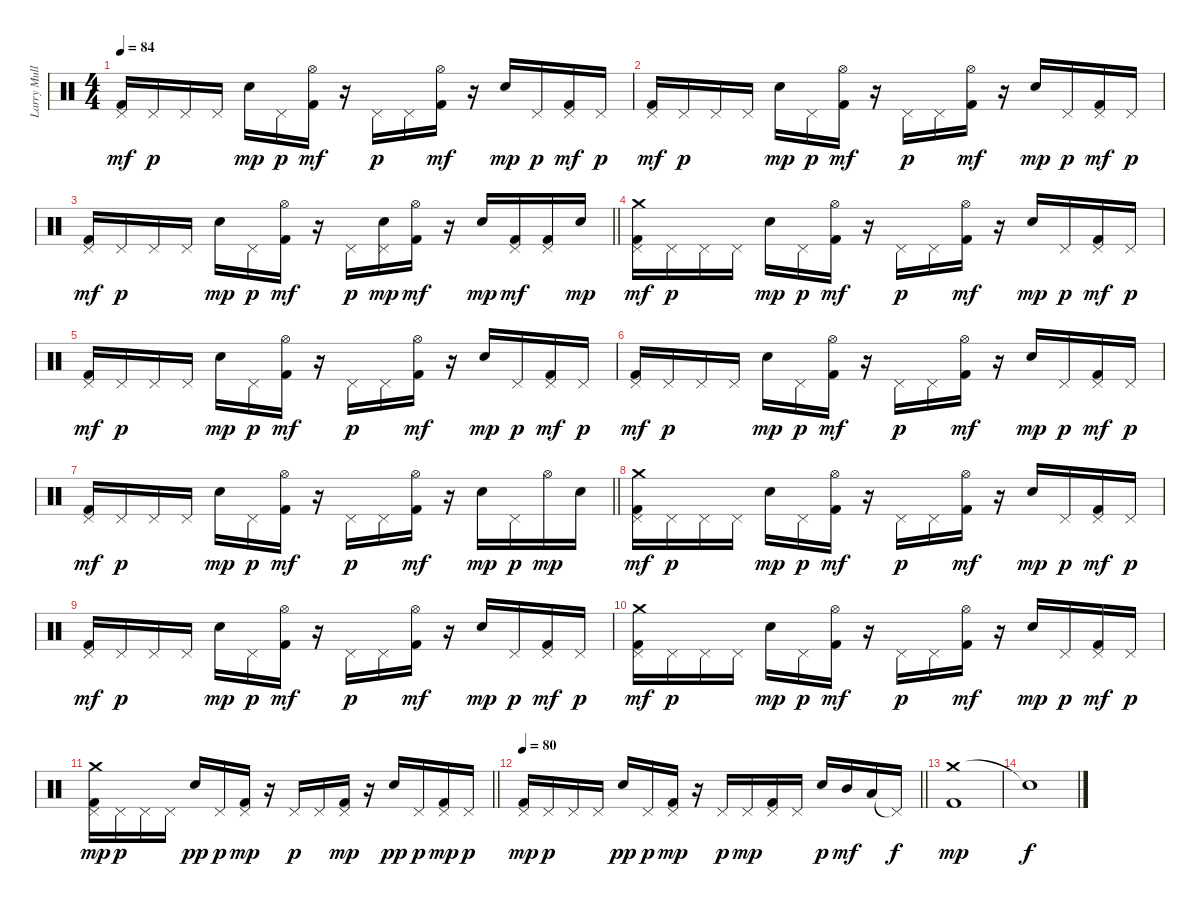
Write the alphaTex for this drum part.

\track ("Larry Mullen Jr." "Larry Mull") {instrument percussion}
\staff {score}
\articulation defaults
\ts (4 4)
\tempo 84
\clef neutral
\ks c
("Pedal Hi-Hat (hit)" "Kick (hit) 2").16{dy mf} "Pedal Hi-Hat (hit)".16{dy p} "Pedal Hi-Hat (hit)".16 "Pedal Hi-Hat (hit)".16 "Electric Snare (hit)".16{dy mp} "Pedal Hi-Hat (hit)".16{dy p} ("Hi-Hat (open)" "Kick (hit) 2").16{dy mf} r.16 "Pedal Hi-Hat (hit)".16{dy p} "Pedal Hi-Hat (hit)".16 ("Hi-Hat (open)" "Kick (hit) 2").16{dy mf} r.16 "Electric Snare (hit)".16{dy mp} "Pedal Hi-Hat (hit)".16{dy p} ("Pedal Hi-Hat (hit)" "Kick (hit) 2").16{dy mf} "Pedal Hi-Hat (hit)".16{dy p} |
("Pedal Hi-Hat (hit)" "Kick (hit) 2").16{dy mf} "Pedal Hi-Hat (hit)".16{dy p} "Pedal Hi-Hat (hit)".16 "Pedal Hi-Hat (hit)".16 "Electric Snare (hit)".16{dy mp} "Pedal Hi-Hat (hit)".16{dy p} ("Hi-Hat (open)" "Kick (hit) 2").16{dy mf} r.16 "Pedal Hi-Hat (hit)".16{dy p} "Pedal Hi-Hat (hit)".16 ("Hi-Hat (open)" "Kick (hit) 2").16{dy mf} r.16 "Electric Snare (hit)".16{dy mp} "Pedal Hi-Hat (hit)".16{dy p} ("Pedal Hi-Hat (hit)" "Kick (hit) 2").16{dy mf} "Pedal Hi-Hat (hit)".16{dy p} |
\barLineRight lightlight
("Pedal Hi-Hat (hit)" "Kick (hit) 2").16{dy mf} "Pedal Hi-Hat (hit)".16{dy p} "Pedal Hi-Hat (hit)".16 "Pedal Hi-Hat (hit)".16 "Electric Snare (hit)".16{dy mp} "Pedal Hi-Hat (hit)".16{dy p} ("Hi-Hat (open)" "Kick (hit) 2").16{dy mf} r.16 "Pedal Hi-Hat (hit)".16{dy p} ("Pedal Hi-Hat (hit)" "Electric Snare (hit)").16{dy mp} ("Hi-Hat (open)" "Kick (hit) 2").16{dy mf} r.16 "Electric Snare (hit)".16{dy mp} ("Pedal Hi-Hat (hit)" "Kick (hit) 2").16{dy mf} ("Pedal Hi-Hat (hit)" "Kick (hit) 2").16 "Electric Snare (hit)".16{dy mp} |
("Pedal Hi-Hat (hit)" "Crash medium (hit)" "Kick (hit) 2").16{dy mf} "Pedal Hi-Hat (hit)".16{dy p} "Pedal Hi-Hat (hit)".16 "Pedal Hi-Hat (hit)".16 "Electric Snare (hit)".16{dy mp} "Pedal Hi-Hat (hit)".16{dy p} ("Hi-Hat (open)" "Kick (hit) 2").16{dy mf} r.16 "Pedal Hi-Hat (hit)".16{dy p} "Pedal Hi-Hat (hit)".16 ("Hi-Hat (open)" "Kick (hit) 2").16{dy mf} r.16 "Electric Snare (hit)".16{dy mp} "Pedal Hi-Hat (hit)".16{dy p} ("Pedal Hi-Hat (hit)" "Kick (hit) 2").16{dy mf} "Pedal Hi-Hat (hit)".16{dy p} |
("Pedal Hi-Hat (hit)" "Kick (hit) 2").16{dy mf} "Pedal Hi-Hat (hit)".16{dy p} "Pedal Hi-Hat (hit)".16 "Pedal Hi-Hat (hit)".16 "Electric Snare (hit)".16{dy mp} "Pedal Hi-Hat (hit)".16{dy p} ("Hi-Hat (open)" "Kick (hit) 2").16{dy mf} r.16 "Pedal Hi-Hat (hit)".16{dy p} "Pedal Hi-Hat (hit)".16 ("Hi-Hat (open)" "Kick (hit) 2").16{dy mf} r.16 "Electric Snare (hit)".16{dy mp} "Pedal Hi-Hat (hit)".16{dy p} ("Pedal Hi-Hat (hit)" "Kick (hit) 2").16{dy mf} "Pedal Hi-Hat (hit)".16{dy p} |
("Pedal Hi-Hat (hit)" "Kick (hit) 2").16{dy mf} "Pedal Hi-Hat (hit)".16{dy p} "Pedal Hi-Hat (hit)".16 "Pedal Hi-Hat (hit)".16 "Electric Snare (hit)".16{dy mp} "Pedal Hi-Hat (hit)".16{dy p} ("Hi-Hat (open)" "Kick (hit) 2").16{dy mf} r.16 "Pedal Hi-Hat (hit)".16{dy p} "Pedal Hi-Hat (hit)".16 ("Hi-Hat (open)" "Kick (hit) 2").16{dy mf} r.16 "Electric Snare (hit)".16{dy mp} "Pedal Hi-Hat (hit)".16{dy p} ("Pedal Hi-Hat (hit)" "Kick (hit) 2").16{dy mf} "Pedal Hi-Hat (hit)".16{dy p} |
\barLineRight lightlight
("Pedal Hi-Hat (hit)" "Kick (hit) 2").16{dy mf} "Pedal Hi-Hat (hit)".16{dy p} "Pedal Hi-Hat (hit)".16 "Pedal Hi-Hat (hit)".16 "Electric Snare (hit)".16{dy mp} "Pedal Hi-Hat (hit)".16{dy p} ("Hi-Hat (open)" "Kick (hit) 2").16{dy mf} r.16 "Pedal Hi-Hat (hit)".16{dy p} "Pedal Hi-Hat (hit)".16 ("Hi-Hat (open)" "Kick (hit) 2").16{dy mf} r.16 "Electric Snare (hit)".16{dy mp} "Pedal Hi-Hat (hit)".16{dy p} "Hi-Hat (open)".16{dy mp} "Electric Snare (hit)".16 |
("Pedal Hi-Hat (hit)" "Crash medium (hit)" "Kick (hit) 2").16{dy mf} "Pedal Hi-Hat (hit)".16{dy p} "Pedal Hi-Hat (hit)".16 "Pedal Hi-Hat (hit)".16 "Electric Snare (hit)".16{dy mp} "Pedal Hi-Hat (hit)".16{dy p} ("Hi-Hat (open)" "Kick (hit) 2").16{dy mf} r.16 "Pedal Hi-Hat (hit)".16{dy p} "Pedal Hi-Hat (hit)".16 ("Hi-Hat (open)" "Kick (hit) 2").16{dy mf} r.16 "Electric Snare (hit)".16{dy mp} "Pedal Hi-Hat (hit)".16{dy p} ("Pedal Hi-Hat (hit)" "Kick (hit) 2").16{dy mf} "Pedal Hi-Hat (hit)".16{dy p} |
("Pedal Hi-Hat (hit)" "Kick (hit) 2").16{dy mf} "Pedal Hi-Hat (hit)".16{dy p} "Pedal Hi-Hat (hit)".16 "Pedal Hi-Hat (hit)".16 "Electric Snare (hit)".16{dy mp} "Pedal Hi-Hat (hit)".16{dy p} ("Hi-Hat (open)" "Kick (hit) 2").16{dy mf} r.16 "Pedal Hi-Hat (hit)".16{dy p} "Pedal Hi-Hat (hit)".16 ("Hi-Hat (open)" "Kick (hit) 2").16{dy mf} r.16 "Electric Snare (hit)".16{dy mp} "Pedal Hi-Hat (hit)".16{dy p} ("Pedal Hi-Hat (hit)" "Kick (hit) 2").16{dy mf} "Pedal Hi-Hat (hit)".16{dy p} |
("Pedal Hi-Hat (hit)" "Crash medium (hit)" "Kick (hit) 2").16{dy mf} "Pedal Hi-Hat (hit)".16{dy p} "Pedal Hi-Hat (hit)".16 "Pedal Hi-Hat (hit)".16 "Electric Snare (hit)".16{dy mp} "Pedal Hi-Hat (hit)".16{dy p} ("Hi-Hat (open)" "Kick (hit) 2").16{dy mf} r.16 "Pedal Hi-Hat (hit)".16{dy p} "Pedal Hi-Hat (hit)".16 ("Hi-Hat (open)" "Kick (hit) 2").16{dy mf} r.16 "Electric Snare (hit)".16{dy mp} "Pedal Hi-Hat (hit)".16{dy p} ("Pedal Hi-Hat (hit)" "Kick (hit) 2").16{dy mf} "Pedal Hi-Hat (hit)".16{dy p} |
\barLineRight lightlight
("Pedal Hi-Hat (hit)" "Crash medium (hit)" "Kick (hit) 2").16{dy mp} "Pedal Hi-Hat (hit)".16{dy p} "Pedal Hi-Hat (hit)".16 "Pedal Hi-Hat (hit)".16 "Electric Snare (hit)".16{dy pp} "Pedal Hi-Hat (hit)".16{dy p} ("Pedal Hi-Hat (hit)" "Kick (hit) 2").16{dy mp} r.16 "Pedal Hi-Hat (hit)".16{dy p} "Pedal Hi-Hat (hit)".16 ("Pedal Hi-Hat (hit)" "Kick (hit) 2").16{dy mp} r.16 "Electric Snare (hit)".16{dy pp} "Pedal Hi-Hat (hit)".16{dy p} ("Pedal Hi-Hat (hit)" "Kick (hit) 2").16{dy mp} "Pedal Hi-Hat (hit)".16{dy p} |
\tempo 80
\barLineRight lightlight
("Pedal Hi-Hat (hit)" "Kick (hit) 2").16{dy mp} "Pedal Hi-Hat (hit)".16{dy p} "Pedal Hi-Hat (hit)".16 "Pedal Hi-Hat (hit)".16 "Electric Snare (hit)".16{dy pp} "Pedal Hi-Hat (hit)".16{dy p} ("Pedal Hi-Hat (hit)" "Kick (hit) 2").16{dy mp} r.16 "Pedal Hi-Hat (hit)".16{dy p} "Pedal Hi-Hat (hit)".16{dy mp} ("Pedal Hi-Hat (hit)" "Kick (hit) 2").16 "Pedal Hi-Hat (hit)".16 "Electric Snare (hit)".16{dy p} "Mid Tom (hit)".16{dy mf} "Low Tom (hit)".16 "Pedal Hi-Hat (hit)"{t}.16{dy f} |
("Crash medium (hit)" "Kick (hit) 2").1{dy mp} |
"Snare (hit)"{t}.1{dy f}
